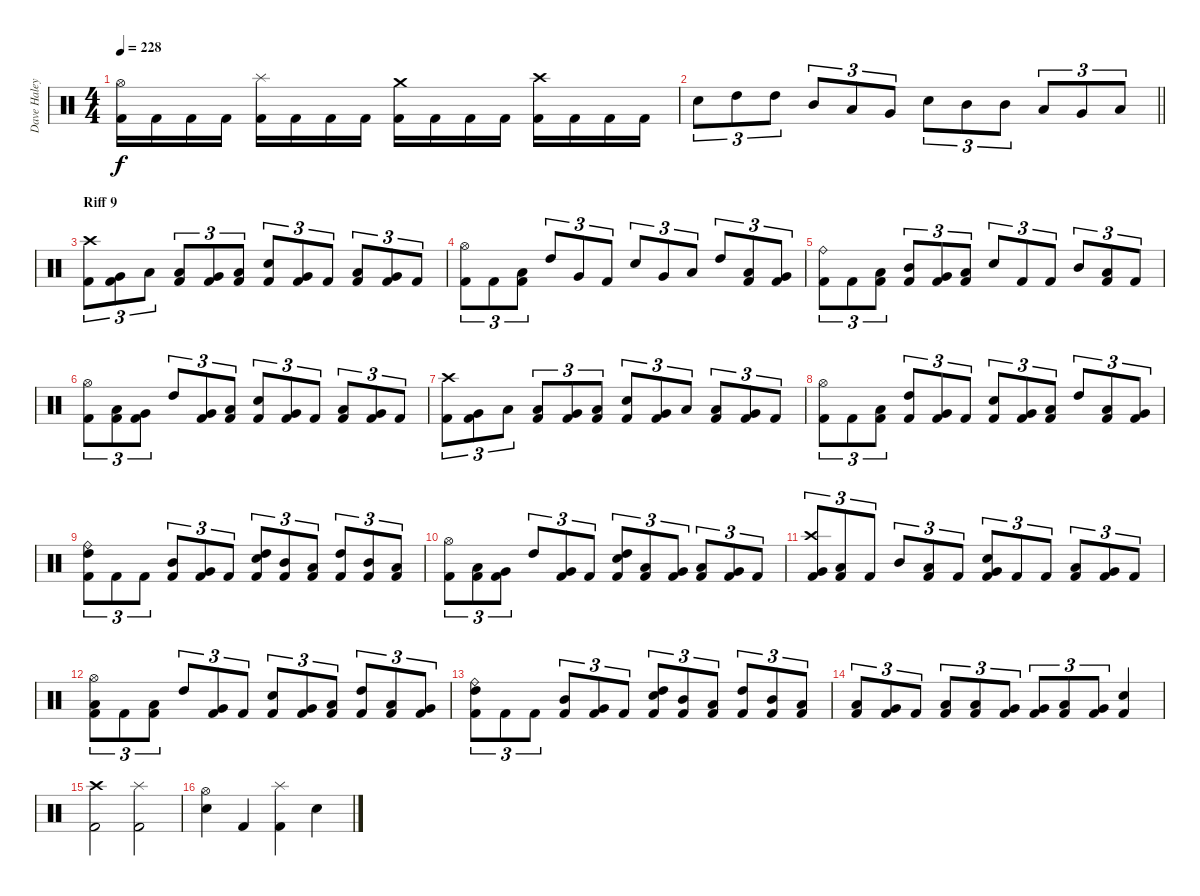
\track ("Dave Haley" "Dave Haley") {instrument percussion}
\staff {score}
\articulation defaults
\ts (4 4)
\tempo 228
\clef neutral
\ks c
("Hi-Hat (open)" "Kick (hit) 2").16{dy f} "Kick (hit) 2".16 "Kick (hit) 2".16 "Kick (hit) 2".16 ("Splash (hit)" "Kick (hit) 2").16 "Kick (hit) 2".16 "Kick (hit) 2".16 "Kick (hit) 2".16 ("Crash medium (hit)" "Kick (hit) 2").16 "Kick (hit) 2".16 "Kick (hit) 2".16 "Kick (hit) 2".16 ("Crash high (hit)" "Kick (hit) 2").16 "Kick (hit) 2".16 "Kick (hit) 2".16 "Kick (hit) 2".16 |
\barLineRight lightlight "Snare (hit) 2".8{tu (3 2)} "High Tom (hit)".8{tu (3 2)} "High Tom (hit)".8{tu (3 2)} "Mid Tom (hit)".8{tu (3 2)} "Low Tom (hit)".8{tu (3 2)} "Very Low Tom (hit)".8{tu (3 2)} "Snare (hit) 2".8{tu (3 2)} "Mid Tom (hit)".8{tu (3 2)} "Mid Tom (hit)".8{tu (3 2)} "Low Tom (hit)".8{tu (3 2)} "Very Low Tom (hit)".8{tu (3 2)} "Low Floor Tom (hit)".8{tu (3 2)}
|
\section ("" "Riff 9")
("Crash high (hit)" "Kick (hit) 2").8{tu (3 2)} ("Very Low Tom (hit)" "Kick (hit) 2").8{tu (3 2)} "Low Tom (hit)".8{tu (3 2)} ("Low Tom (hit)" "Kick (hit) 2").8{tu (3 2)} ("Very Low Tom (hit)" "Kick (hit) 2").8{tu (3 2)} ("Low Floor Tom (hit)" "Kick (hit) 2").8{tu (3 2)} ("Snare (hit) 2" "Kick (hit) 2").8{tu (3 2)} ("Very Low Tom (hit)" "Kick (hit) 2").8{tu (3 2)} "Kick (hit) 2".8{tu (3 2)} ("Low Tom (hit)" "Kick (hit) 2").8{tu (3 2)} ("Very Low Tom (hit)" "Kick (hit) 2").8{tu (3 2)} "Kick (hit) 2".8{tu (3 2)} |
("Hi-Hat (open)" "Kick (hit) 2").8{tu (3 2)} "Kick (hit) 2".8{tu (3 2)} ("Low Tom (hit)" "Kick (hit) 2").8{tu (3 2)} "High Tom (hit)".8{tu (3 2)} "Very Low Tom (hit)".8{tu (3 2)} "Kick (hit) 2".8{tu (3 2)} "Snare (hit) 2".8{tu (3 2)} "Very Low Tom (hit)".8{tu (3 2)} "Low Tom (hit)".8{tu (3 2)} "High Tom (hit)".8{tu (3 2)} ("Low Tom (hit)" "Kick (hit) 2").8{tu (3 2)} ("Very Low Tom (hit)" "Kick (hit) 2").8{tu (3 2)} |
("Ride (bell)" "Kick (hit) 2").8{tu (3 2)} "Kick (hit) 2".8{tu (3 2)} ("Low Tom (hit)" "Kick (hit) 2").8{tu (3 2)} ("Mid Tom (hit)" "Kick (hit) 2").8{tu (3 2)} ("Very Low Tom (hit)" "Kick (hit) 2").8{tu (3 2)} ("Low Floor Tom (hit)" "Kick (hit) 2").8{tu (3 2)} "Snare (hit) 2".8{tu (3 2)} "Kick (hit) 2".8{tu (3 2)} "Kick (hit) 2".8{tu (3 2)} "Mid Tom (hit)".8{tu (3 2)} ("Low Tom (hit)" "Kick (hit) 2").8{tu (3 2)} "Kick (hit) 2".8{tu (3 2)} |
("Hi-Hat (open)" "Kick (hit) 2").8{tu (3 2)} ("Low Tom (hit)" "Kick (hit) 2").8{tu (3 2)} ("Very Low Tom (hit)" "Kick (hit) 2").8{tu (3 2)} "High Tom (hit)".8{tu (3 2)} ("Very Low Tom (hit)" "Kick (hit) 2").8{tu (3 2)} ("Low Floor Tom (hit)" "Kick (hit) 2").8{tu (3 2)} ("Snare (hit) 2" "Kick (hit) 2").8{tu (3 2)} ("Very Low Tom (hit)" "Kick (hit) 2").8{tu (3 2)} "Kick (hit) 2".8{tu (3 2)} ("Low Tom (hit)" "Kick (hit) 2").8{tu (3 2)} ("Very Low Tom (hit)" "Kick (hit) 2").8{tu (3 2)} "Kick (hit) 2".8{tu (3 2)} |
("Crash high (hit)" "Kick (hit) 2").8{tu (3 2)} ("Very Low Tom (hit)" "Kick (hit) 2").8{tu (3 2)} "Low Tom (hit)".8{tu (3 2)} ("Low Tom (hit)" "Kick (hit) 2").8{tu (3 2)} ("Very Low Tom (hit)" "Kick (hit) 2").8{tu (3 2)} ("Low Floor Tom (hit)" "Kick (hit) 2").8{tu (3 2)} ("Snare (hit) 2" "Kick (hit) 2").8{tu (3 2)} ("Very Low Tom (hit)" "Kick (hit) 2").8{tu (3 2)} "Low Floor Tom (hit)".8{tu (3 2)} ("Low Tom (hit)" "Kick (hit) 2").8{tu (3 2)} ("Very Low Tom (hit)" "Kick (hit) 2").8{tu (3 2)} "Kick (hit) 2".8{tu (3 2)} |
("Hi-Hat (open)" "Kick (hit) 2").8{tu (3 2)} "Kick (hit) 2".8{tu (3 2)} ("Low Tom (hit)" "Kick (hit) 2").8{tu (3 2)} ("High Tom (hit)" "Kick (hit) 2").8{tu (3 2)} ("Very Low Tom (hit)" "Kick (hit) 2").8{tu (3 2)} "Kick (hit) 2".8{tu (3 2)} ("Snare (hit) 2" "Kick (hit) 2").8{tu (3 2)} ("Very Low Tom (hit)" "Kick (hit) 2").8{tu (3 2)} ("Low Tom (hit)" "Kick (hit) 2").8{tu (3 2)} "High Tom (hit)".8{tu (3 2)} ("Low Tom (hit)" "Kick (hit) 2").8{tu (3 2)} ("Very Low Tom (hit)" "Kick (hit) 2").8{tu (3 2)} |
("Ride (bell)" "High Tom (hit)" "Kick (hit) 2").8{tu (3 2)} "Kick (hit) 2".8{tu (3 2)} "Kick (hit) 2".8{tu (3 2)} ("Mid Tom (hit)" "Kick (hit) 2").8{tu (3 2)} ("Very Low Tom (hit)" "Kick (hit) 2").8{tu (3 2)} "Kick (hit) 2".8{tu (3 2)} ("Snare (hit) 2" "High Tom (hit)" "Kick (hit) 2").8{tu (3 2)} ("Mid Tom (hit)" "Kick (hit) 2").8{tu (3 2)} ("Low Tom (hit)" "Kick (hit) 2").8{tu (3 2)} ("High Tom (hit)" "Kick (hit) 2").8{tu (3 2)} ("Mid Tom (hit)" "Kick (hit) 2").8{tu (3 2)} ("Low Tom (hit)" "Kick (hit) 2").8{tu (3 2)} |
("Hi-Hat (open)" "Kick (hit) 2").8{tu (3 2)} ("Low Tom (hit)" "Kick (hit) 2").8{tu (3 2)} ("Very Low Tom (hit)" "Kick (hit) 2").8{tu (3 2)} "High Tom (hit)".8{tu (3 2)} ("Very Low Tom (hit)" "Kick (hit) 2").8{tu (3 2)} "Kick (hit) 2".8{tu (3 2)} ("Snare (hit) 2" "High Tom (hit)" "Kick (hit) 2").8{tu (3 2)} ("Low Tom (hit)" "Kick (hit) 2").8{tu (3 2)} ("Very Low Tom (hit)" "Kick (hit) 2").8{tu (3 2)} ("Low Tom (hit)" "Kick (hit) 2").8{tu (3 2)} ("Very Low Tom (hit)" "Kick (hit) 2").8{tu (3 2)} "Kick (hit) 2".8{tu (3 2)} |
("Crash high (hit)" "Very Low Tom (hit)" "Kick (hit) 2").8{tu (3 2)} ("Low Floor Tom (hit)" "Kick (hit) 2").8{tu (3 2)} "Kick (hit) 2".8{tu (3 2)} "Mid Tom (hit)".8{tu (3 2)} ("Low Floor Tom (hit)" "Kick (hit) 2").8{tu (3 2)} "Kick (hit) 2".8{tu (3 2)} ("Snare (hit) 2" "Very Low Tom (hit)" "Kick (hit) 2").8{tu (3 2)} "Kick (hit) 2".8{tu (3 2)} "Kick (hit) 2".8{tu (3 2)} ("Low Tom (hit)" "Kick (hit) 2").8{tu (3 2)} ("Very Low Tom (hit)" "Kick (hit) 2").8{tu (3 2)} "Kick (hit) 2".8{tu (3 2)} |
("Hi-Hat (open)" "Low Tom (hit)" "Kick (hit) 2").8{tu (3 2)} "Kick (hit) 2".8{tu (3 2)} ("Low Tom (hit)" "Kick (hit) 2").8{tu (3 2)} "High Tom (hit)".8{tu (3 2)} ("Very Low Tom (hit)" "Kick (hit) 2").8{tu (3 2)} "Kick (hit) 2".8{tu (3 2)} ("Snare (hit) 2" "Kick (hit) 2").8{tu (3 2)} ("Very Low Tom (hit)" "Kick (hit) 2").8{tu (3 2)} ("Low Floor Tom (hit)" "Kick (hit) 2").8{tu (3 2)} ("High Tom (hit)" "Kick (hit) 2").8{tu (3 2)} ("Low Tom (hit)" "Kick (hit) 2").8{tu (3 2)} ("Very Low Tom (hit)" "Kick (hit) 2").8{tu (3 2)} |
("Ride (bell)" "High Tom (hit)" "Kick (hit) 2").8{tu (3 2)} "Kick (hit) 2".8{tu (3 2)} "Kick (hit) 2".8{tu (3 2)} ("Mid Tom (hit)" "Kick (hit) 2").8{tu (3 2)} ("Very Low Tom (hit)" "Kick (hit) 2").8{tu (3 2)} "Kick (hit) 2".8{tu (3 2)} ("Snare (hit) 2" "High Tom (hit)" "Kick (hit) 2").8{tu (3 2)} ("Mid Tom (hit)" "Kick (hit) 2").8{tu (3 2)} ("Low Tom (hit)" "Kick (hit) 2").8{tu (3 2)} ("High Tom (hit)" "Kick (hit) 2").8{tu (3 2)} ("Mid Tom (hit)" "Kick (hit) 2").8{tu (3 2)} ("Low Tom (hit)" "Kick (hit) 2").8{tu (3 2)} |
("Low Tom (hit)" "Kick (hit) 2").8{tu (3 2)} ("Very Low Tom (hit)" "Kick (hit) 2").8{tu (3 2)} "Kick (hit) 2".8{tu (3 2)} ("Low Floor Tom (hit)" "Kick (hit) 2").8{tu (3 2)} ("Kick (hit) 2" "Low Tom (hit)").8{tu (3 2)} ("Kick (hit) 2" "Very Low Tom (hit)").8{tu (3 2)} ("Very Low Tom (hit)" "Kick (hit) 2").8{tu (3 2)} ("Kick (hit) 2" "Low Tom (hit)").8{tu (3 2)} ("Kick (hit) 2" "Very Low Tom (hit)").8{tu (3 2)} ("Snare (hit) 2" "Kick (hit) 2").4 |
("Crash high (hit)" "Kick (hit) 2").2 ("Splash (hit)" "Kick (hit) 2").2 |
("Hi-Hat (open)" "Snare (hit) 2").4 "Kick (hit) 2".4 ("Splash (hit)" "Kick (hit) 2").4 "Snare (hit) 2".4
